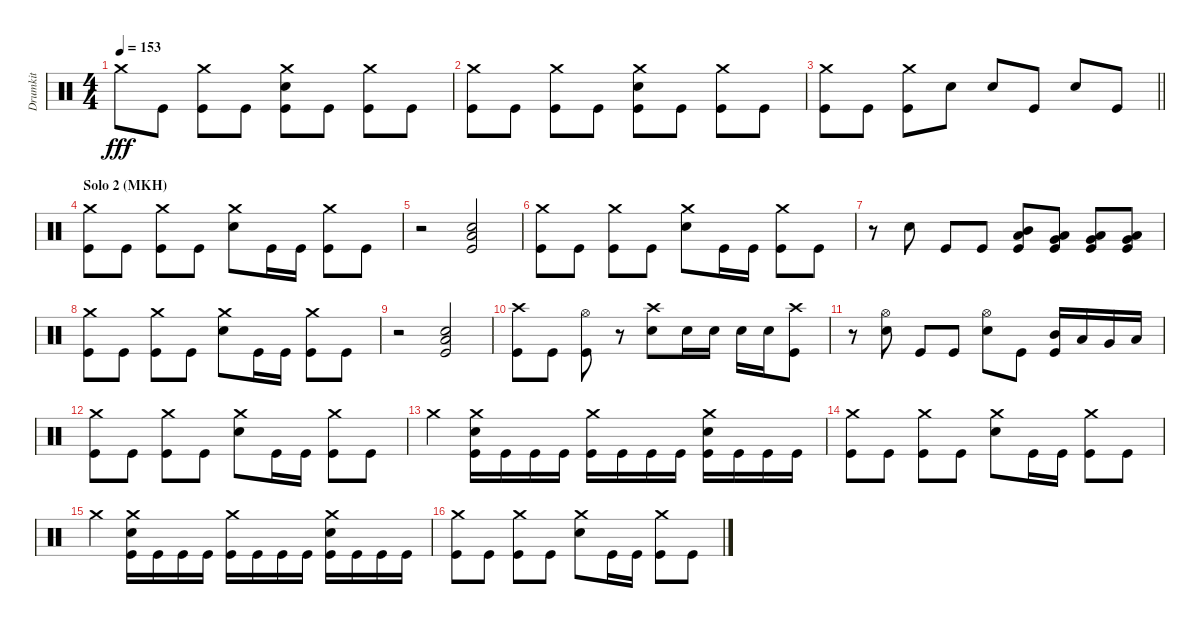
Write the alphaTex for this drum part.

\track ("Drumkit" "Drumkit") {instrument percussion}
\staff {score}
\articulation defaults
\ts (4 4)
\tempo 153
\clef neutral
\ks c "Crash medium (hit)".8{dy fff} "Kick (hit)".8
("Crash medium (hit)" "Kick (hit)").8 "Kick (hit)".8 ("Crash medium (hit)" "Snare (hit) 2" "Kick (hit)").8 "Kick (hit)".8 ("Crash medium (hit)" "Kick (hit)").8 "Kick (hit)".8 |
("Crash medium (hit)" "Kick (hit)").8 "Kick (hit)".8 ("Crash medium (hit)" "Kick (hit)").8 "Kick (hit)".8 ("Crash medium (hit)" "Snare (hit) 2" "Kick (hit)").8 "Kick (hit)".8 ("Crash medium (hit)" "Kick (hit)").8 "Kick (hit)".8 |
\barLineRight lightlight
("Crash medium (hit)" "Kick (hit)").8 "Kick (hit)".8 ("Crash medium (hit)" "Kick (hit)").8 "Snare (hit) 2".8 "Snare (hit) 2".8 "Kick (hit)".8 "Snare (hit) 2".8 "Kick (hit)".8 |
\section ("" "Solo 2 (MKH)")
("Crash medium (hit)" "Kick (hit)").8 "Kick (hit)".8 ("Crash medium (hit)" "Kick (hit)").8 "Kick (hit)".8 ("Crash medium (hit)" "Snare (hit) 2").8 "Kick (hit)".16 "Kick (hit)".16 ("Crash medium (hit)" "Kick (hit)").8 "Kick (hit)".8 |
r.2 ("Low Floor Tom (hit)" "Kick (hit)" "Snare (hit) 2").2 |
("Crash medium (hit)" "Kick (hit)").8 "Kick (hit)".8 ("Crash medium (hit)" "Kick (hit)").8 "Kick (hit)".8 ("Crash medium (hit)" "Snare (hit) 2").8 "Kick (hit)".16 "Kick (hit)".16 ("Crash medium (hit)" "Kick (hit)").8 "Kick (hit)".8 |
r.8 "Snare (hit) 2".8 "Kick (hit)".8 "Kick (hit)".8 ("Mid Tom (hit)" "Low Tom (hit)" "Kick (hit)").8 ("Low Tom (hit)" "Kick (hit)" "Very Low Tom (hit)").8 ("Low Tom (hit)" "Very Low Tom (hit)" "Kick (hit)").8 ("Very Low Tom (hit)" "Kick (hit)" "Low Floor Tom (hit)").8 |
("Crash medium (hit)" "Kick (hit)").8 "Kick (hit)".8 ("Crash medium (hit)" "Kick (hit)").8 "Kick (hit)".8 ("Crash medium (hit)" "Snare (hit) 2").8 "Kick (hit)".16 "Kick (hit)".16 ("Crash medium (hit)" "Kick (hit)").8 "Kick (hit)".8 |
r.2 ("Low Floor Tom (hit)" "Kick (hit)" "Snare (hit) 2").2 |
("Crash high (hit)" "Kick (hit)").8 "Kick (hit)".8 ("Hi-Hat (open)" "Kick (hit)").8 r.8 ("Crash high (hit)" "Snare (hit) 2").8 "Snare (hit) 2".16 "Snare (hit) 2".16 "Snare (hit) 2".16 "Snare (hit) 2".16 ("Crash high (hit)" "Kick (hit)").8 |
r.8 ("Hi-Hat (open)" "Snare (hit) 2").8 "Kick (hit)".8 "Kick (hit)".8 ("Hi-Hat (open)" "Snare (hit) 2").8 "Kick (hit)".8 ("Mid Tom (hit)" "Kick (hit)").16 "Low Tom (hit)".16 "Very Low Tom (hit)".16 "Low Floor Tom (hit)".16 |
("Crash medium (hit)" "Kick (hit)").8 "Kick (hit)".8 ("Crash medium (hit)" "Kick (hit)").8 "Kick (hit)".8 ("Crash medium (hit)" "Snare (hit) 2").8 "Kick (hit)".16 "Kick (hit)".16 ("Crash medium (hit)" "Kick (hit)").8 "Kick (hit)".8 |
"Crash medium (hit)".4 ("Crash medium (hit)" "Snare (hit) 2" "Kick (hit)").16 "Kick (hit)".16 "Kick (hit)".16 "Kick (hit)".16 ("Crash medium (hit)" "Kick (hit)").16 "Kick (hit)".16 "Kick (hit)".16 "Kick (hit)".16 ("Crash medium (hit)" "Snare (hit) 2" "Kick (hit)").16 "Kick (hit)".16 "Kick (hit)".16 "Kick (hit)".16 |
("Crash medium (hit)" "Kick (hit)").8 "Kick (hit)".8 ("Crash medium (hit)" "Kick (hit)").8 "Kick (hit)".8 ("Crash medium (hit)" "Snare (hit) 2").8 "Kick (hit)".16 "Kick (hit)".16 ("Crash medium (hit)" "Kick (hit)").8 "Kick (hit)".8 |
"Crash medium (hit)".4 ("Crash medium (hit)" "Snare (hit) 2" "Kick (hit)").16 "Kick (hit)".16 "Kick (hit)".16 "Kick (hit)".16 ("Crash medium (hit)" "Kick (hit)").16 "Kick (hit)".16 "Kick (hit)".16 "Kick (hit)".16 ("Crash medium (hit)" "Snare (hit) 2" "Kick (hit)").16 "Kick (hit)".16 "Kick (hit)".16 "Kick (hit)".16 |
("Crash medium (hit)" "Kick (hit)").8 "Kick (hit)".8 ("Crash medium (hit)" "Kick (hit)").8 "Kick (hit)".8 ("Crash medium (hit)" "Snare (hit) 2").8 "Kick (hit)".16 "Kick (hit)".16 ("Crash medium (hit)" "Kick (hit)").8 "Kick (hit)".8
